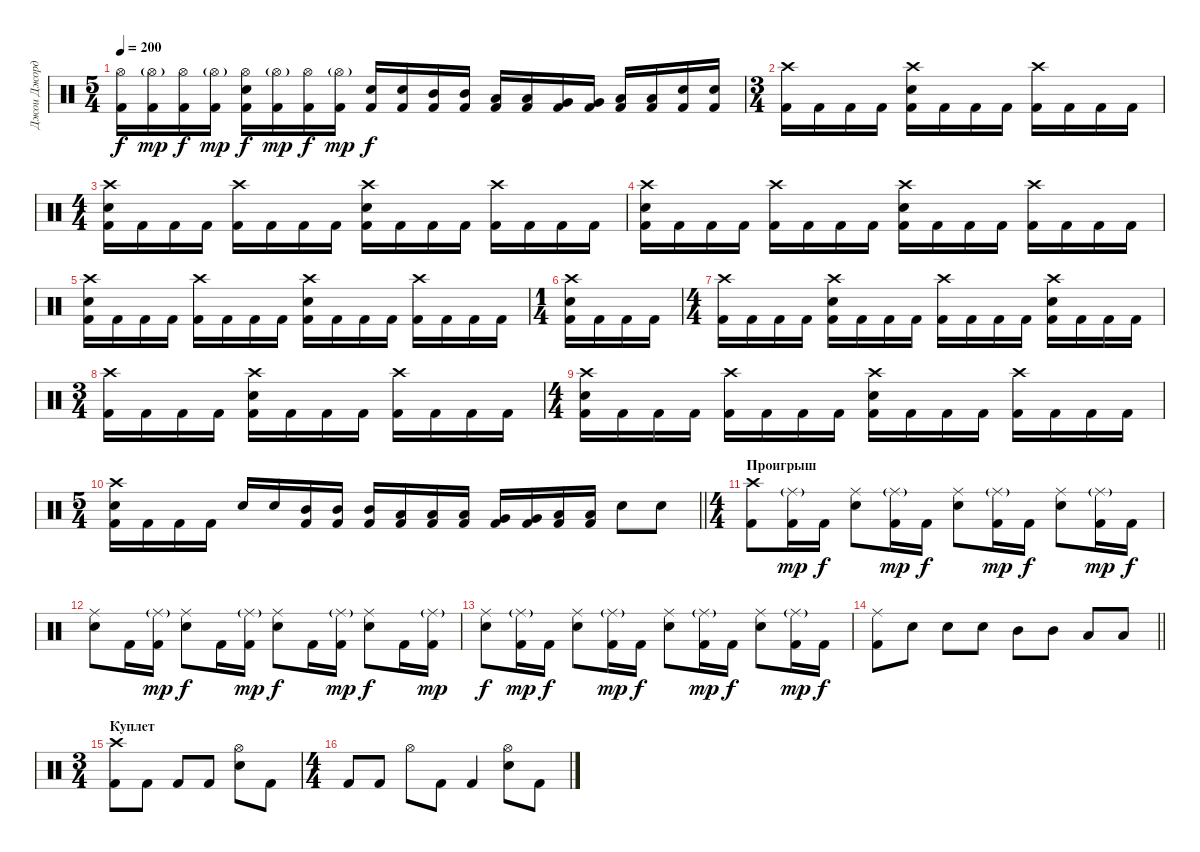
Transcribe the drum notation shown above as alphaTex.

\track ("Джои Джордисон" "Джои Джорд") {instrument percussion}
\staff {score}
\articulation defaults
\ts (5 4)
\tempo 200
\clef neutral
\ks c
("Hi-Hat (open)" "Kick (hit) 2").16{dy f} ("Hi-Hat (open)"{g} "Kick (hit) 2").16{dy mp} ("Hi-Hat (open)" "Kick (hit) 2").16{dy f} ("Hi-Hat (open)"{g} "Kick (hit) 2").16{dy mp} ("Hi-Hat (open)" "Electric Snare (hit)" "Kick (hit) 2").16{dy f} ("Hi-Hat (open)"{g} "Kick (hit) 2").16{dy mp} ("Hi-Hat (open)" "Kick (hit) 2").16{dy f} ("Hi-Hat (open)"{g} "Kick (hit) 2").16{dy mp} ("Electric Snare (hit)" "Kick (hit) 2").16{dy f} ("Electric Snare (hit)" "Kick (hit) 2").16 ("Mid Tom (hit)" "Kick (hit) 2").16 ("Mid Tom (hit)" "Kick (hit) 2").16 ("Low Tom (hit)" "Kick (hit) 2").16 ("Low Tom (hit)" "Kick (hit) 2").16 ("Very Low Tom (hit)" "Kick (hit) 2").16 ("Very Low Tom (hit)" "Kick (hit) 2").16 ("Low Floor Tom (hit)" "Kick (hit) 2").16 ("Low Floor Tom (hit)" "Kick (hit) 2").16 ("Electric Snare (hit)" "Kick (hit) 2").16 ("Electric Snare (hit)" "Kick (hit) 2").16 |
\ts (3 4)
("Crash high (hit)" "Kick (hit) 2").16 "Kick (hit) 2".16 "Kick (hit) 2".16 "Kick (hit) 2".16 ("Crash high (hit)" "Electric Snare (hit)" "Kick (hit) 2").16 "Kick (hit) 2".16 "Kick (hit) 2".16 "Kick (hit) 2".16 ("Crash high (hit)" "Kick (hit) 2").16 "Kick (hit) 2".16 "Kick (hit) 2".16 "Kick (hit) 2".16 |
\ts (4 4)
("Crash high (hit)" "Electric Snare (hit)" "Kick (hit) 2").16 "Kick (hit) 2".16 "Kick (hit) 2".16 "Kick (hit) 2".16 ("Crash high (hit)" "Kick (hit) 2").16 "Kick (hit) 2".16 "Kick (hit) 2".16 "Kick (hit) 2".16 ("Crash high (hit)" "Electric Snare (hit)" "Kick (hit) 2").16 "Kick (hit) 2".16 "Kick (hit) 2".16 "Kick (hit) 2".16 ("Crash high (hit)" "Kick (hit) 2").16 "Kick (hit) 2".16 "Kick (hit) 2".16 "Kick (hit) 2".16 |
("Crash high (hit)" "Electric Snare (hit)" "Kick (hit) 2").16 "Kick (hit) 2".16 "Kick (hit) 2".16 "Kick (hit) 2".16 ("Crash high (hit)" "Kick (hit) 2").16 "Kick (hit) 2".16 "Kick (hit) 2".16 "Kick (hit) 2".16 ("Crash high (hit)" "Electric Snare (hit)" "Kick (hit) 2").16 "Kick (hit) 2".16 "Kick (hit) 2".16 "Kick (hit) 2".16 ("Crash high (hit)" "Kick (hit) 2").16 "Kick (hit) 2".16 "Kick (hit) 2".16 "Kick (hit) 2".16 |
("Crash high (hit)" "Electric Snare (hit)" "Kick (hit) 2").16 "Kick (hit) 2".16 "Kick (hit) 2".16 "Kick (hit) 2".16 ("Crash high (hit)" "Kick (hit) 2").16 "Kick (hit) 2".16 "Kick (hit) 2".16 "Kick (hit) 2".16 ("Crash high (hit)" "Electric Snare (hit)" "Kick (hit) 2").16 "Kick (hit) 2".16 "Kick (hit) 2".16 "Kick (hit) 2".16 ("Crash high (hit)" "Kick (hit) 2").16 "Kick (hit) 2".16 "Kick (hit) 2".16 "Kick (hit) 2".16 |
\ts (1 4)
("Crash high (hit)" "Electric Snare (hit)" "Kick (hit) 2").16 "Kick (hit) 2".16 "Kick (hit) 2".16 "Kick (hit) 2".16 |
\ts (4 4)
("Crash high (hit)" "Kick (hit) 2").16 "Kick (hit) 2".16 "Kick (hit) 2".16 "Kick (hit) 2".16 ("Crash high (hit)" "Electric Snare (hit)" "Kick (hit) 2").16 "Kick (hit) 2".16 "Kick (hit) 2".16 "Kick (hit) 2".16 ("Crash high (hit)" "Kick (hit) 2").16 "Kick (hit) 2".16 "Kick (hit) 2".16 "Kick (hit) 2".16 ("Crash high (hit)" "Electric Snare (hit)" "Kick (hit) 2").16 "Kick (hit) 2".16 "Kick (hit) 2".16 "Kick (hit) 2".16 |
\ts (3 4)
("Crash high (hit)" "Kick (hit) 2").16 "Kick (hit) 2".16 "Kick (hit) 2".16 "Kick (hit) 2".16 ("Crash high (hit)" "Electric Snare (hit)" "Kick (hit) 2").16 "Kick (hit) 2".16 "Kick (hit) 2".16 "Kick (hit) 2".16 ("Crash high (hit)" "Kick (hit) 2").16 "Kick (hit) 2".16 "Kick (hit) 2".16 "Kick (hit) 2".16 |
\ts (4 4)
("Crash high (hit)" "Electric Snare (hit)" "Kick (hit) 2").16 "Kick (hit) 2".16 "Kick (hit) 2".16 "Kick (hit) 2".16 ("Crash high (hit)" "Kick (hit) 2").16 "Kick (hit) 2".16 "Kick (hit) 2".16 "Kick (hit) 2".16 ("Crash high (hit)" "Electric Snare (hit)" "Kick (hit) 2").16 "Kick (hit) 2".16 "Kick (hit) 2".16 "Kick (hit) 2".16 ("Crash high (hit)" "Kick (hit) 2").16 "Kick (hit) 2".16 "Kick (hit) 2".16 "Kick (hit) 2".16 |
\ts (5 4)
\barLineRight lightlight
("Crash high (hit)" "Electric Snare (hit)" "Kick (hit) 2").16 "Kick (hit) 2".16 "Kick (hit) 2".16 "Kick (hit) 2".16 "Electric Snare (hit)".16 "Electric Snare (hit)".16 ("Mid Tom (hit)" "Kick (hit) 2").16 ("Mid Tom (hit)" "Kick (hit) 2").16 ("Mid Tom (hit)" "Kick (hit) 2").16 ("Low Tom (hit)" "Kick (hit) 2").16 ("Low Tom (hit)" "Kick (hit) 2").16 ("Low Tom (hit)" "Kick (hit) 2").16 ("Very Low Tom (hit)" "Kick (hit) 2").16 ("Very Low Tom (hit)" "Kick (hit) 2").16 ("Low Floor Tom (hit)" "Kick (hit) 2").16 ("Low Floor Tom (hit)" "Kick (hit) 2").16 "Electric Snare (hit)".8 "Electric Snare (hit)".8 |
\ts (4 4)
\section ("" "Проигрыш")
("Crash high (hit)" "Kick (hit) 2").8 ("Ride (middle)"{g} "Kick (hit) 2").16{dy mp} "Kick (hit) 2".16{dy f} ("Ride (middle)" "Electric Snare (hit)").8 ("Ride (middle)"{g} "Kick (hit) 2").16{dy mp} "Kick (hit) 2".16{dy f} ("Ride (middle)" "Electric Snare (hit)").8 ("Ride (middle)"{g} "Kick (hit) 2").16{dy mp} "Kick (hit) 2".16{dy f} ("Ride (middle)" "Electric Snare (hit)").8 ("Ride (middle)"{g} "Kick (hit) 2").16{dy mp} "Kick (hit) 2".16{dy f} |
("Ride (middle)" "Electric Snare (hit)").8 "Kick (hit) 2".16 ("Ride (middle)"{g} "Kick (hit) 2").16{dy mp} ("Ride (middle)" "Electric Snare (hit)").8{dy f} "Kick (hit) 2".16 ("Ride (middle)"{g} "Kick (hit) 2").16{dy mp} ("Ride (middle)" "Electric Snare (hit)").8{dy f} "Kick (hit) 2".16 ("Ride (middle)"{g} "Kick (hit) 2").16{dy mp} ("Ride (middle)" "Electric Snare (hit)").8{dy f} "Kick (hit) 2".16 ("Ride (middle)"{g} "Kick (hit) 2").16{dy mp} |
("Ride (middle)" "Electric Snare (hit)").8{dy f} ("Ride (middle)"{g} "Kick (hit) 2").16{dy mp} "Kick (hit) 2".16{dy f} ("Ride (middle)" "Electric Snare (hit)").8 ("Ride (middle)"{g} "Kick (hit) 2").16{dy mp} "Kick (hit) 2".16{dy f} ("Ride (middle)" "Electric Snare (hit)").8 ("Ride (middle)"{g} "Kick (hit) 2").16{dy mp} "Kick (hit) 2".16{dy f} ("Ride (middle)" "Electric Snare (hit)").8 ("Ride (middle)"{g} "Kick (hit) 2").16{dy mp} "Kick (hit) 2".16{dy f} |
\barLineRight lightlight
("Ride (middle)" "Kick (hit) 2").8 "Electric Snare (hit)".8 "Electric Snare (hit)".8 "Electric Snare (hit)".8 "Mid Tom (hit)".8 "Mid Tom (hit)".8 "Low Tom (hit)".8 "Low Tom (hit)".8 |
\ts (3 4)
\section ("" "Куплет")
("Crash high (hit)" "Kick (hit) 2").8 "Kick (hit) 2".8 "Kick (hit) 2".8 "Kick (hit) 2".8 ("Hi-Hat (open)" "Electric Snare (hit)").8 "Kick (hit) 2".8 |
\ts (4 4)
"Kick (hit) 2".8 "Kick (hit) 2".8 "Hi-Hat (open)".8 "Kick (hit) 2".8 "Kick (hit) 2".4 ("Hi-Hat (open)" "Electric Snare (hit)").8 "Kick (hit) 2".8
